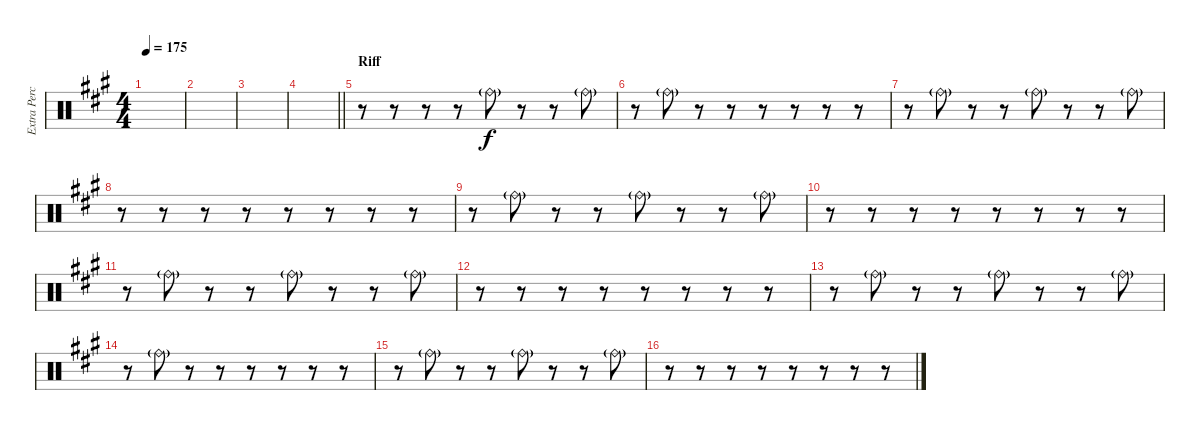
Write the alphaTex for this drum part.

\track ("Extra Percussion" "Extra Perc") {instrument percussion}
\staff {score}
\articulation defaults
\ts (4 4)
\tempo 175
\clef neutral
\ks f#minor
|
|
|
\barLineRight lightlight
|
\section ("" "Riff")
r.8 r.8 r.8 r.8 "Ride (bell)"{g}.8 r.8 r.8 "Ride (bell)"{g}.8 |
r.8 "Ride (bell)"{g}.8 r.8 r.8 r.8 r.8 r.8 r.8 |
r.8 "Ride (bell)"{g}.8 r.8 r.8 "Ride (bell)"{g}.8 r.8 r.8 "Ride (bell)"{g}.8 |
r.8 r.8 r.8 r.8 r.8 r.8 r.8 r.8 |
r.8 "Ride (bell)"{g}.8 r.8 r.8 "Ride (bell)"{g}.8 r.8 r.8 "Ride (bell)"{g}.8 |
r.8 r.8 r.8 r.8 r.8 r.8 r.8 r.8 |
r.8 "Ride (bell)"{g}.8 r.8 r.8 "Ride (bell)"{g}.8 r.8 r.8 "Ride (bell)"{g}.8 |
r.8 r.8 r.8 r.8 r.8 r.8 r.8 r.8 |
r.8 "Ride (bell)"{g}.8 r.8 r.8 "Ride (bell)"{g}.8 r.8 r.8 "Ride (bell)"{g}.8 |
r.8 "Ride (bell)"{g}.8 r.8 r.8 r.8 r.8 r.8 r.8 |
r.8 "Ride (bell)"{g}.8 r.8 r.8 "Ride (bell)"{g}.8 r.8 r.8 "Ride (bell)"{g}.8 |
r.8 r.8 r.8 r.8 r.8 r.8 r.8 r.8
